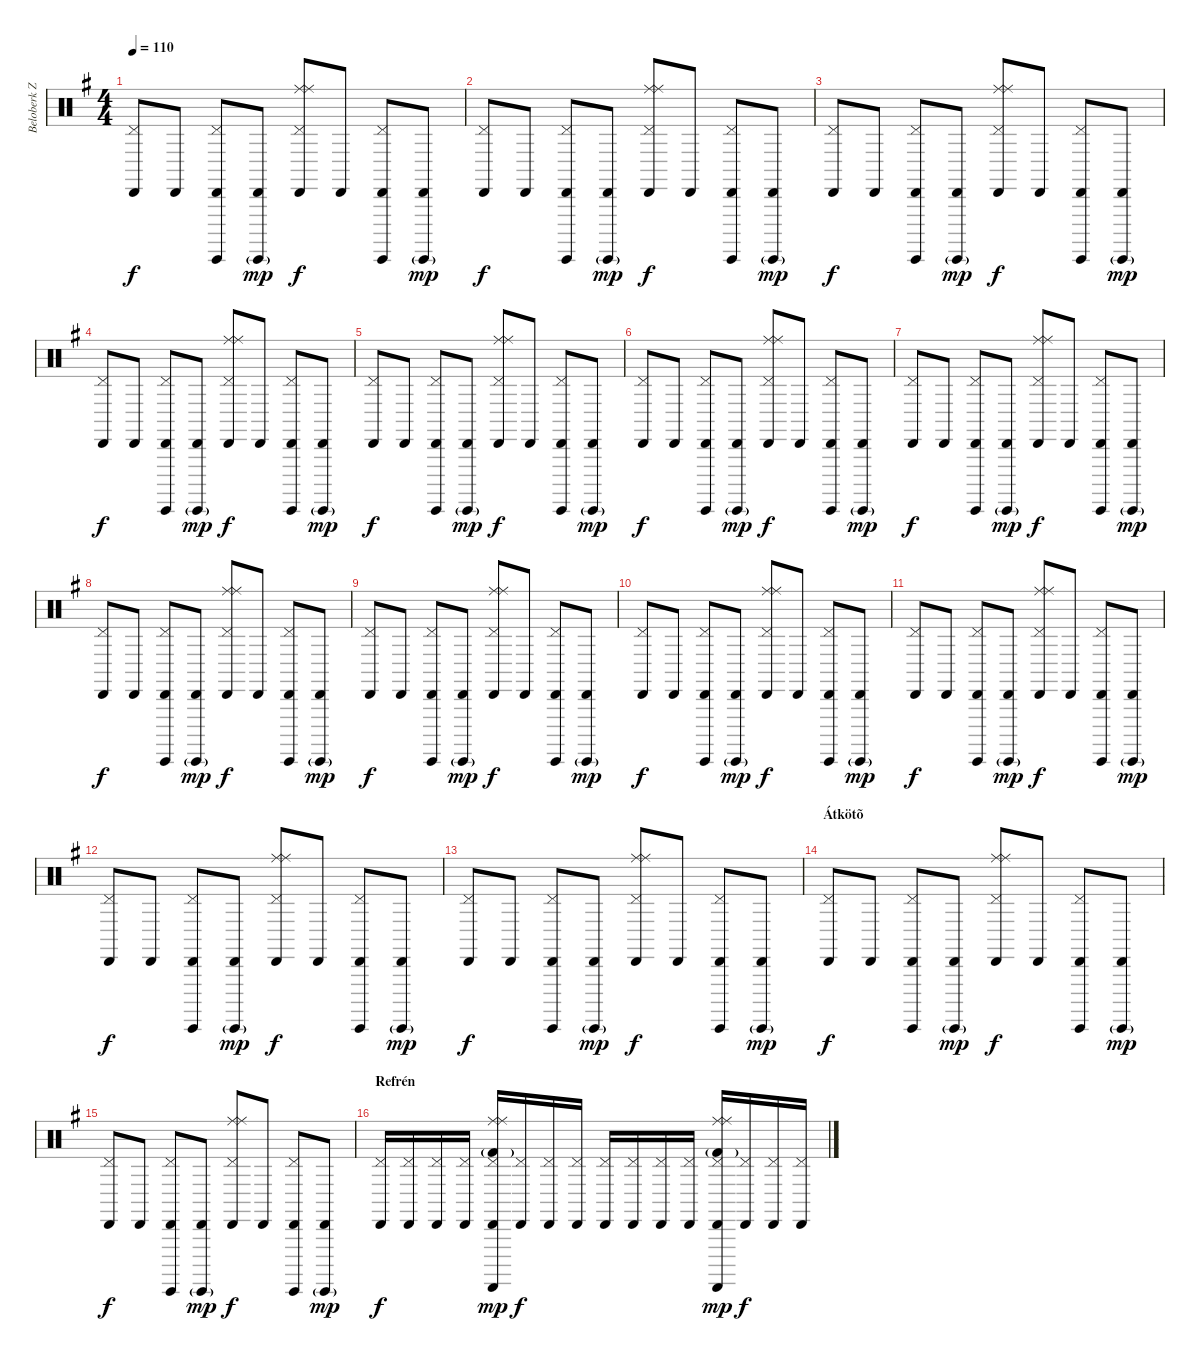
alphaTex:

\track ("Beloberk Zsolt" "Beloberk Z") {instrument percussion}
\staff {score}
\articulation defaults
\ts (4 4)
\tempo 110
\clef neutral
\ks eminor
("Cabasa (hit)" "Pedal Hi-Hat (hit)").8{dy f} "Cabasa (hit)".8 ("Cabasa (hit)" "Guiro (hit)" "Pedal Hi-Hat (hit)").8 ("Cabasa (hit)" "Guiro (hit)"{g}).8{dy mp} ("Cabasa (hit)" "Pedal Hi-Hat (hit)" "Ride (middle)" "Ride (middle)").8{dy f} "Cabasa (hit)".8 ("Cabasa (hit)" "Guiro (hit)" "Pedal Hi-Hat (hit)").8 ("Cabasa (hit)" "Guiro (hit)"{g}).8{dy mp} |
("Cabasa (hit)" "Pedal Hi-Hat (hit)").8{dy f} "Cabasa (hit)".8 ("Cabasa (hit)" "Guiro (hit)" "Pedal Hi-Hat (hit)").8 ("Cabasa (hit)" "Guiro (hit)"{g}).8{dy mp} ("Cabasa (hit)" "Pedal Hi-Hat (hit)" "Ride (middle)" "Ride (middle)").8{dy f} "Cabasa (hit)".8 ("Cabasa (hit)" "Guiro (hit)" "Pedal Hi-Hat (hit)").8 ("Cabasa (hit)" "Guiro (hit)"{g}).8{dy mp} |
("Cabasa (hit)" "Pedal Hi-Hat (hit)").8{dy f} "Cabasa (hit)".8 ("Cabasa (hit)" "Guiro (hit)" "Pedal Hi-Hat (hit)").8 ("Cabasa (hit)" "Guiro (hit)"{g}).8{dy mp} ("Cabasa (hit)" "Pedal Hi-Hat (hit)" "Ride (middle)" "Ride (middle)").8{dy f} "Cabasa (hit)".8 ("Cabasa (hit)" "Guiro (hit)" "Pedal Hi-Hat (hit)").8 ("Cabasa (hit)" "Guiro (hit)"{g}).8{dy mp} |
("Cabasa (hit)" "Pedal Hi-Hat (hit)").8{dy f} "Cabasa (hit)".8 ("Cabasa (hit)" "Guiro (hit)" "Pedal Hi-Hat (hit)").8 ("Cabasa (hit)" "Guiro (hit)"{g}).8{dy mp} ("Cabasa (hit)" "Pedal Hi-Hat (hit)" "Ride (middle)" "Ride (middle)").8{dy f} "Cabasa (hit)".8 ("Cabasa (hit)" "Guiro (hit)" "Pedal Hi-Hat (hit)").8 ("Cabasa (hit)" "Guiro (hit)"{g}).8{dy mp} |
("Cabasa (hit)" "Pedal Hi-Hat (hit)").8{dy f} "Cabasa (hit)".8 ("Cabasa (hit)" "Guiro (hit)" "Pedal Hi-Hat (hit)").8 ("Cabasa (hit)" "Guiro (hit)"{g}).8{dy mp} ("Cabasa (hit)" "Pedal Hi-Hat (hit)" "Ride (middle)" "Ride (middle)").8{dy f} "Cabasa (hit)".8 ("Cabasa (hit)" "Guiro (hit)" "Pedal Hi-Hat (hit)").8 ("Cabasa (hit)" "Guiro (hit)"{g}).8{dy mp} |
("Cabasa (hit)" "Pedal Hi-Hat (hit)").8{dy f} "Cabasa (hit)".8 ("Cabasa (hit)" "Guiro (hit)" "Pedal Hi-Hat (hit)").8 ("Cabasa (hit)" "Guiro (hit)"{g}).8{dy mp} ("Cabasa (hit)" "Pedal Hi-Hat (hit)" "Ride (middle)" "Ride (middle)").8{dy f} "Cabasa (hit)".8 ("Cabasa (hit)" "Guiro (hit)" "Pedal Hi-Hat (hit)").8 ("Cabasa (hit)" "Guiro (hit)"{g}).8{dy mp} |
("Cabasa (hit)" "Pedal Hi-Hat (hit)").8{dy f} "Cabasa (hit)".8 ("Cabasa (hit)" "Guiro (hit)" "Pedal Hi-Hat (hit)").8 ("Cabasa (hit)" "Guiro (hit)"{g}).8{dy mp} ("Cabasa (hit)" "Pedal Hi-Hat (hit)" "Ride (middle)" "Ride (middle)").8{dy f} "Cabasa (hit)".8 ("Cabasa (hit)" "Guiro (hit)" "Pedal Hi-Hat (hit)").8 ("Cabasa (hit)" "Guiro (hit)"{g}).8{dy mp} |
("Cabasa (hit)" "Pedal Hi-Hat (hit)").8{dy f} "Cabasa (hit)".8 ("Cabasa (hit)" "Guiro (hit)" "Pedal Hi-Hat (hit)").8 ("Cabasa (hit)" "Guiro (hit)"{g}).8{dy mp} ("Cabasa (hit)" "Pedal Hi-Hat (hit)" "Ride (middle)" "Ride (middle)").8{dy f} "Cabasa (hit)".8 ("Cabasa (hit)" "Guiro (hit)" "Pedal Hi-Hat (hit)").8 ("Cabasa (hit)" "Guiro (hit)"{g}).8{dy mp} |
("Cabasa (hit)" "Pedal Hi-Hat (hit)").8{dy f} "Cabasa (hit)".8 ("Cabasa (hit)" "Guiro (hit)" "Pedal Hi-Hat (hit)").8 ("Cabasa (hit)" "Guiro (hit)"{g}).8{dy mp} ("Cabasa (hit)" "Pedal Hi-Hat (hit)" "Ride (middle)" "Ride (middle)").8{dy f} "Cabasa (hit)".8 ("Cabasa (hit)" "Guiro (hit)" "Pedal Hi-Hat (hit)").8 ("Cabasa (hit)" "Guiro (hit)"{g}).8{dy mp} |
("Cabasa (hit)" "Pedal Hi-Hat (hit)").8{dy f} "Cabasa (hit)".8 ("Cabasa (hit)" "Guiro (hit)" "Pedal Hi-Hat (hit)").8 ("Cabasa (hit)" "Guiro (hit)"{g}).8{dy mp} ("Cabasa (hit)" "Pedal Hi-Hat (hit)" "Ride (middle)" "Ride (middle)").8{dy f} "Cabasa (hit)".8 ("Cabasa (hit)" "Guiro (hit)" "Pedal Hi-Hat (hit)").8 ("Cabasa (hit)" "Guiro (hit)"{g}).8{dy mp} |
("Cabasa (hit)" "Pedal Hi-Hat (hit)").8{dy f} "Cabasa (hit)".8 ("Cabasa (hit)" "Guiro (hit)" "Pedal Hi-Hat (hit)").8 ("Cabasa (hit)" "Guiro (hit)"{g}).8{dy mp} ("Cabasa (hit)" "Pedal Hi-Hat (hit)" "Ride (middle)" "Ride (middle)").8{dy f} "Cabasa (hit)".8 ("Cabasa (hit)" "Guiro (hit)" "Pedal Hi-Hat (hit)").8 ("Cabasa (hit)" "Guiro (hit)"{g}).8{dy mp} |
("Cabasa (hit)" "Pedal Hi-Hat (hit)").8{dy f} "Cabasa (hit)".8 ("Cabasa (hit)" "Guiro (hit)" "Pedal Hi-Hat (hit)").8 ("Cabasa (hit)" "Guiro (hit)"{g}).8{dy mp} ("Cabasa (hit)" "Pedal Hi-Hat (hit)" "Ride (middle)" "Ride (middle)").8{dy f} "Cabasa (hit)".8 ("Cabasa (hit)" "Guiro (hit)" "Pedal Hi-Hat (hit)").8 ("Cabasa (hit)" "Guiro (hit)"{g}).8{dy mp} |
("Cabasa (hit)" "Pedal Hi-Hat (hit)").8{dy f} "Cabasa (hit)".8 ("Cabasa (hit)" "Guiro (hit)" "Pedal Hi-Hat (hit)").8 ("Cabasa (hit)" "Guiro (hit)"{g}).8{dy mp} ("Cabasa (hit)" "Pedal Hi-Hat (hit)" "Ride (middle)" "Ride (middle)").8{dy f} "Cabasa (hit)".8 ("Cabasa (hit)" "Guiro (hit)" "Pedal Hi-Hat (hit)").8 ("Cabasa (hit)" "Guiro (hit)"{g}).8{dy mp} |
\section ("" "Átkötõ")
("Cabasa (hit)" "Pedal Hi-Hat (hit)").8{dy f} "Cabasa (hit)".8 ("Cabasa (hit)" "Guiro (hit)" "Pedal Hi-Hat (hit)").8 ("Cabasa (hit)" "Guiro (hit)"{g}).8{dy mp} ("Cabasa (hit)" "Pedal Hi-Hat (hit)" "Ride (middle)" "Ride (middle)").8{dy f} "Cabasa (hit)".8 ("Cabasa (hit)" "Guiro (hit)" "Pedal Hi-Hat (hit)").8 ("Cabasa (hit)" "Guiro (hit)"{g}).8{dy mp} |
("Cabasa (hit)" "Pedal Hi-Hat (hit)").8{dy f} "Cabasa (hit)".8 ("Cabasa (hit)" "Guiro (hit)" "Pedal Hi-Hat (hit)").8 ("Cabasa (hit)" "Guiro (hit)"{g}).8{dy mp} ("Cabasa (hit)" "Pedal Hi-Hat (hit)" "Ride (middle)" "Ride (middle)").8{dy f} "Cabasa (hit)".8 ("Cabasa (hit)" "Guiro (hit)" "Pedal Hi-Hat (hit)").8 ("Cabasa (hit)" "Guiro (hit)"{g}).8{dy mp} |
\section ("" "Refrén")
("Pedal Hi-Hat (hit)" "Cabasa (hit)").16{dy f} ("Pedal Hi-Hat (hit)" "Cabasa (hit)").16 ("Pedal Hi-Hat (hit)" "Cabasa (hit)").16 ("Pedal Hi-Hat (hit)" "Cabasa (hit)").16 ("Pedal Hi-Hat (hit)" "Cabasa (hit)" "Ride (middle)" "Ride (middle)" "Kick (hit) 2"{g} "Guiro (scrap-return)").16{dy mp} ("Pedal Hi-Hat (hit)" "Cabasa (hit)").16{dy f} ("Pedal Hi-Hat (hit)" "Cabasa (hit)").16 ("Pedal Hi-Hat (hit)" "Cabasa (hit)").16 ("Pedal Hi-Hat (hit)" "Cabasa (hit)").16 ("Pedal Hi-Hat (hit)" "Cabasa (hit)").16 ("Pedal Hi-Hat (hit)" "Cabasa (hit)").16 ("Pedal Hi-Hat (hit)" "Cabasa (hit)").16 ("Pedal Hi-Hat (hit)" "Cabasa (hit)" "Ride (middle)" "Ride (middle)" "Kick (hit) 2"{g} "Guiro (scrap-return)").16{dy mp} ("Pedal Hi-Hat (hit)" "Cabasa (hit)").16{dy f} ("Pedal Hi-Hat (hit)" "Cabasa (hit)").16 ("Pedal Hi-Hat (hit)" "Cabasa (hit)").16
